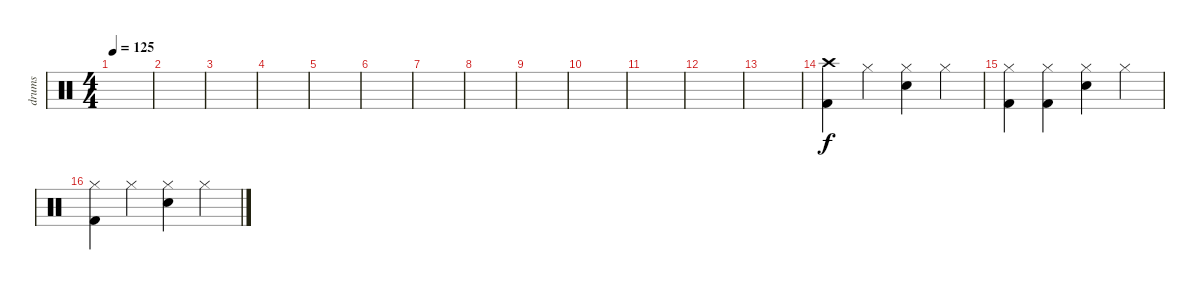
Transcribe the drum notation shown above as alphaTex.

\track ("drums" "drums") {instrument percussion}
\staff {score}
\articulation defaults
\ts (4 4)
\tempo 125
\clef neutral
\ks c
|
|
|
|
|
|
|
|
|
|
|
|
|
("Kick (hit) 2" "Crash high (hit)").4 "Hi-Hat (closed)".4 ("Hi-Hat (closed)" "Electric Snare (hit)").4 "Hi-Hat (closed)".4 |
("Kick (hit) 2" "Hi-Hat (closed)").4 ("Kick (hit) 2" "Hi-Hat (closed)").4 ("Hi-Hat (closed)" "Electric Snare (hit)").4 "Hi-Hat (closed)".4 |
("Kick (hit) 2" "Hi-Hat (closed)").4 "Hi-Hat (closed)".4 ("Hi-Hat (closed)" "Electric Snare (hit)").4 "Hi-Hat (closed)".4
